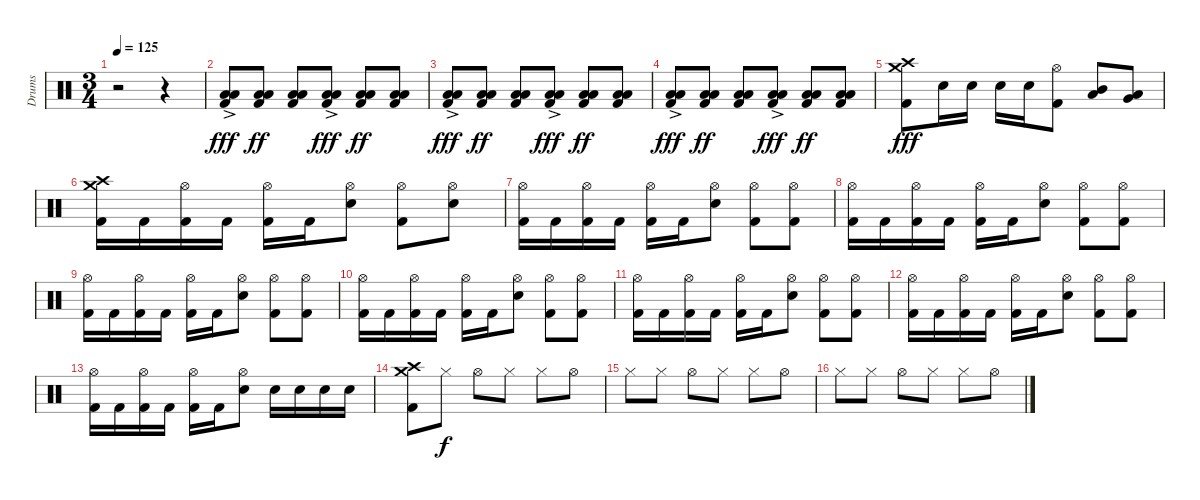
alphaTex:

\track ("Drums" "Drums") {instrument percussion}
\staff {score}
\articulation defaults
\ts (3 4)
\tempo 125
\clef neutral
\ks c
r.2{dy fff} r.4 |
("Kick (hit) 2"{ac} "Low Tom (hit)"{ac} "Low Floor Tom (hit)"{ac}).8 ("Kick (hit) 2" "Low Tom (hit)" "Low Floor Tom (hit)").8{dy ff} ("Kick (hit) 2" "Low Tom (hit)" "Low Floor Tom (hit)").8 ("Kick (hit) 2"{ac} "Low Tom (hit)"{ac} "Low Floor Tom (hit)"{ac}).8{dy fff} ("Kick (hit) 2" "Low Tom (hit)" "Low Floor Tom (hit)").8{dy ff} ("Kick (hit) 2" "Low Tom (hit)" "Low Floor Tom (hit)").8 |
("Kick (hit) 2"{ac} "Low Tom (hit)"{ac} "Low Floor Tom (hit)"{ac}).8{dy fff} ("Kick (hit) 2" "Low Tom (hit)" "Low Floor Tom (hit)").8{dy ff} ("Kick (hit) 2" "Low Tom (hit)" "Low Floor Tom (hit)").8 ("Kick (hit) 2"{ac} "Low Tom (hit)"{ac} "Low Floor Tom (hit)"{ac}).8{dy fff} ("Kick (hit) 2" "Low Tom (hit)" "Low Floor Tom (hit)").8{dy ff} ("Kick (hit) 2" "Low Tom (hit)" "Low Floor Tom (hit)").8 |
("Kick (hit) 2"{ac} "Low Tom (hit)"{ac} "Low Floor Tom (hit)"{ac}).8{dy fff} ("Kick (hit) 2" "Low Tom (hit)" "Low Floor Tom (hit)").8{dy ff} ("Kick (hit) 2" "Low Tom (hit)" "Low Floor Tom (hit)").8 ("Kick (hit) 2"{ac} "Low Tom (hit)"{ac} "Low Floor Tom (hit)"{ac}).8{dy fff} ("Kick (hit) 2" "Low Tom (hit)" "Low Floor Tom (hit)").8{dy ff} ("Kick (hit) 2" "Low Tom (hit)" "Low Floor Tom (hit)").8 |
("Kick (hit) 2" "Crash medium (hit)" "Crash high (hit)").8{dy fff} "Electric Snare (hit)".16 "Electric Snare (hit)".16 "Electric Snare (hit)".16 "Electric Snare (hit)".16 ("Kick (hit) 2" "Hi-Hat (open)").8 ("Mid Tom (hit)" "Low Tom (hit)").8 ("Low Tom (hit)" "Very Low Tom (hit)").8 |
("Kick (hit) 2" "Crash medium (hit)" "Crash high (hit)").16 "Kick (hit) 2".16 ("Kick (hit) 2" "Hi-Hat (open)").16 "Kick (hit) 2".16 ("Kick (hit) 2" "Hi-Hat (open)").16 "Kick (hit) 2".16 ("Electric Snare (hit)" "Hi-Hat (open)").8 ("Kick (hit) 2" "Hi-Hat (open)").8 ("Electric Snare (hit)" "Hi-Hat (open)").8 |
("Kick (hit) 2" "Hi-Hat (open)").16 "Kick (hit) 2".16 ("Kick (hit) 2" "Hi-Hat (open)").16 "Kick (hit) 2".16 ("Kick (hit) 2" "Hi-Hat (open)").16 "Kick (hit) 2".16 ("Electric Snare (hit)" "Hi-Hat (open)").8 ("Kick (hit) 2" "Hi-Hat (open)").8 ("Kick (hit) 2" "Hi-Hat (open)").8 |
("Kick (hit) 2" "Hi-Hat (open)").16 "Kick (hit) 2".16 ("Kick (hit) 2" "Hi-Hat (open)").16 "Kick (hit) 2".16 ("Kick (hit) 2" "Hi-Hat (open)").16 "Kick (hit) 2".16 ("Electric Snare (hit)" "Hi-Hat (open)").8 ("Kick (hit) 2" "Hi-Hat (open)").8 ("Kick (hit) 2" "Hi-Hat (open)").8 |
("Kick (hit) 2" "Hi-Hat (open)").16 "Kick (hit) 2".16 ("Kick (hit) 2" "Hi-Hat (open)").16 "Kick (hit) 2".16 ("Kick (hit) 2" "Hi-Hat (open)").16 "Kick (hit) 2".16 ("Electric Snare (hit)" "Hi-Hat (open)").8 ("Kick (hit) 2" "Hi-Hat (open)").8 ("Kick (hit) 2" "Hi-Hat (open)").8 |
("Kick (hit) 2" "Hi-Hat (open)").16 "Kick (hit) 2".16 ("Kick (hit) 2" "Hi-Hat (open)").16 "Kick (hit) 2".16 ("Kick (hit) 2" "Hi-Hat (open)").16 "Kick (hit) 2".16 ("Electric Snare (hit)" "Hi-Hat (open)").8 ("Kick (hit) 2" "Hi-Hat (open)").8 ("Kick (hit) 2" "Hi-Hat (open)").8 |
("Kick (hit) 2" "Hi-Hat (open)").16 "Kick (hit) 2".16 ("Kick (hit) 2" "Hi-Hat (open)").16 "Kick (hit) 2".16 ("Kick (hit) 2" "Hi-Hat (open)").16 "Kick (hit) 2".16 ("Electric Snare (hit)" "Hi-Hat (open)").8 ("Kick (hit) 2" "Hi-Hat (open)").8 ("Kick (hit) 2" "Hi-Hat (open)").8 |
("Kick (hit) 2" "Hi-Hat (open)").16 "Kick (hit) 2".16 ("Kick (hit) 2" "Hi-Hat (open)").16 "Kick (hit) 2".16 ("Kick (hit) 2" "Hi-Hat (open)").16 "Kick (hit) 2".16 ("Electric Snare (hit)" "Hi-Hat (open)").8 ("Kick (hit) 2" "Hi-Hat (open)").8 ("Kick (hit) 2" "Hi-Hat (open)").8 |
("Kick (hit) 2" "Hi-Hat (open)").16 "Kick (hit) 2".16 ("Kick (hit) 2" "Hi-Hat (open)").16 "Kick (hit) 2".16 ("Kick (hit) 2" "Hi-Hat (open)").16 "Kick (hit) 2".16 ("Electric Snare (hit)" "Hi-Hat (open)").8 "Electric Snare (hit)".16 "Electric Snare (hit)".16 "Electric Snare (hit)".16 "Electric Snare (hit)".16 |
("Kick (hit) 2" "Crash medium (hit)" "Crash high (hit)").8 "Hi-Hat (closed)".8{dy f} "Hi-Hat (open)".8 "Hi-Hat (closed)".8 "Hi-Hat (closed)".8 "Hi-Hat (open)".8 |
"Hi-Hat (closed)".8 "Hi-Hat (closed)".8 "Hi-Hat (open)".8 "Hi-Hat (closed)".8 "Hi-Hat (closed)".8 "Hi-Hat (open)".8 |
"Hi-Hat (closed)".8 "Hi-Hat (closed)".8 "Hi-Hat (open)".8 "Hi-Hat (closed)".8 "Hi-Hat (closed)".8 "Hi-Hat (open)".8
